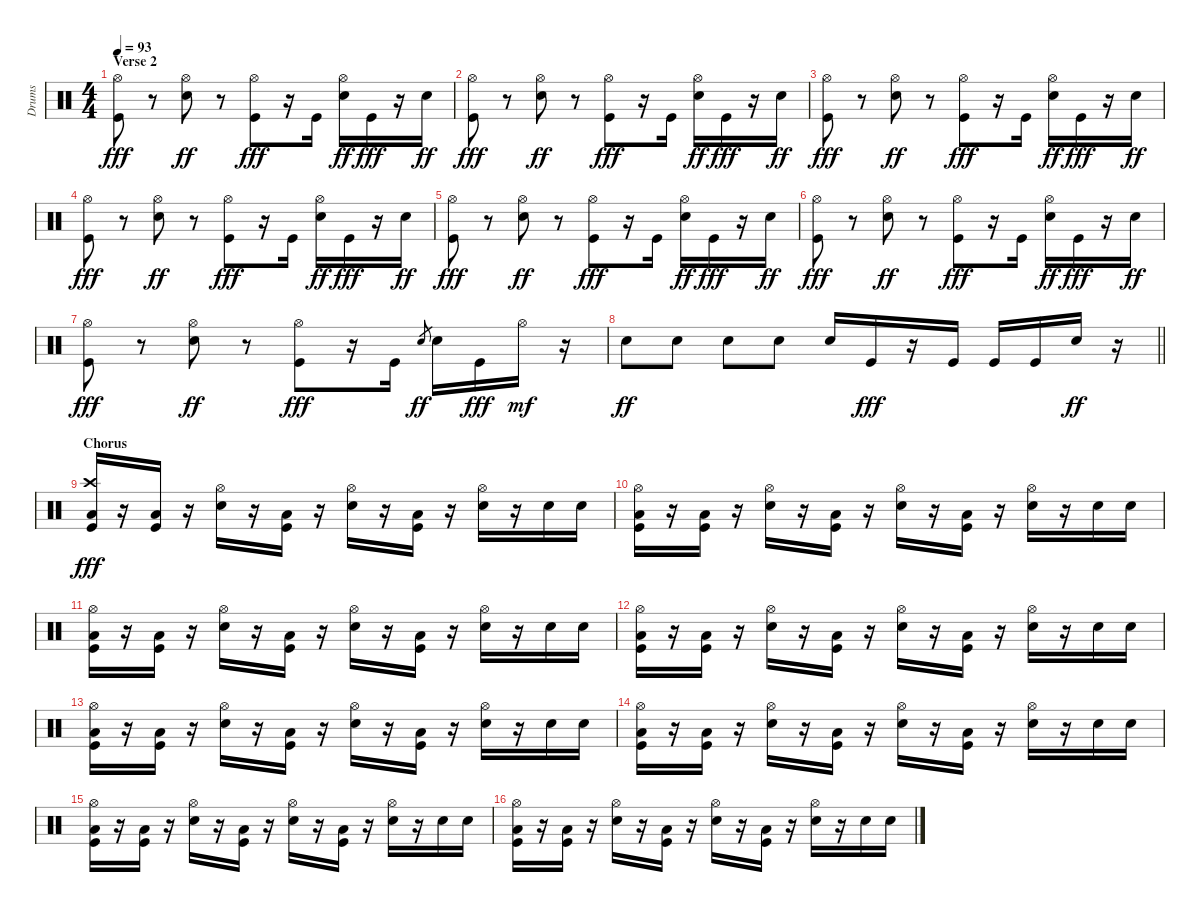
\track ("Drums" "Drums") {instrument percussion}
\staff {score}
\articulation defaults
\ts (4 4)
\section ("" "Verse 2")
\tempo 93
\clef neutral
\ks c
("Hi-Hat (open)" "Kick (hit)").8{dy fff} r.8 ("Hi-Hat (open)" "Electric Snare (hit)").8{dy ff} r.8 ("Hi-Hat (open)" "Kick (hit)").8{dy fff} r.16 "Kick (hit)".16 ("Hi-Hat (open)" "Electric Snare (hit)").16{dy ff} "Kick (hit)".16{dy fff} r.16 "Electric Snare (hit)".16{dy ff} |
("Hi-Hat (open)" "Kick (hit)").8{dy fff} r.8 ("Hi-Hat (open)" "Electric Snare (hit)").8{dy ff} r.8 ("Hi-Hat (open)" "Kick (hit)").8{dy fff} r.16 "Kick (hit)".16 ("Hi-Hat (open)" "Electric Snare (hit)").16{dy ff} "Kick (hit)".16{dy fff} r.16 "Electric Snare (hit)".16{dy ff} |
("Hi-Hat (open)" "Kick (hit)").8{dy fff} r.8 ("Hi-Hat (open)" "Electric Snare (hit)").8{dy ff} r.8 ("Hi-Hat (open)" "Kick (hit)").8{dy fff} r.16 "Kick (hit)".16 ("Hi-Hat (open)" "Electric Snare (hit)").16{dy ff} "Kick (hit)".16{dy fff} r.16 "Electric Snare (hit)".16{dy ff} |
("Hi-Hat (open)" "Kick (hit)").8{dy fff} r.8 ("Hi-Hat (open)" "Electric Snare (hit)").8{dy ff} r.8 ("Hi-Hat (open)" "Kick (hit)").8{dy fff} r.16 "Kick (hit)".16 ("Hi-Hat (open)" "Electric Snare (hit)").16{dy ff} "Kick (hit)".16{dy fff} r.16 "Electric Snare (hit)".16{dy ff} |
("Hi-Hat (open)" "Kick (hit)").8{dy fff} r.8 ("Hi-Hat (open)" "Electric Snare (hit)").8{dy ff} r.8 ("Hi-Hat (open)" "Kick (hit)").8{dy fff} r.16 "Kick (hit)".16 ("Hi-Hat (open)" "Electric Snare (hit)").16{dy ff} "Kick (hit)".16{dy fff} r.16 "Electric Snare (hit)".16{dy ff} |
("Hi-Hat (open)" "Kick (hit)").8{dy fff} r.8 ("Hi-Hat (open)" "Electric Snare (hit)").8{dy ff} r.8 ("Hi-Hat (open)" "Kick (hit)").8{dy fff} r.16 "Kick (hit)".16 ("Hi-Hat (open)" "Electric Snare (hit)").16{dy ff} "Kick (hit)".16{dy fff} r.16 "Electric Snare (hit)".16{dy ff} |
("Hi-Hat (open)" "Kick (hit)").8{dy fff} r.8 ("Hi-Hat (open)" "Electric Snare (hit)").8{dy ff} r.8 ("Hi-Hat (open)" "Kick (hit)").8{dy fff} r.16 "Kick (hit)".16 "Electric Snare (hit)".8{gr dy ff} "Electric Snare (hit)".16 "Kick (hit)".16{dy fff} "Hi-Hat (open)".16{dy mf} r.16 |
\barLineRight lightlight "Electric Snare (hit)".8{dy ff} "Electric Snare (hit)".8 "Electric Snare (hit)".8 "Electric Snare (hit)".8 "Electric Snare (hit)".16 "Kick (hit)".16{dy fff}
r.16 "Kick (hit)".16 "Kick (hit)".16 "Kick (hit)".16 "Electric Snare (hit)".16{dy ff} r.16 |
\section ("" "Chorus")
("Crash high (hit)" "Low Floor Tom (hit)" "Kick (hit)").16{dy fff} r.16 ("Low Floor Tom (hit)" "Kick (hit)").16 r.16 ("Hi-Hat (open)" "Electric Snare (hit)").16 r.16 ("Low Floor Tom (hit)" "Kick (hit)").16 r.16 ("Hi-Hat (open)" "Electric Snare (hit)").16 r.16 ("Low Floor Tom (hit)" "Kick (hit)").16 r.16 ("Hi-Hat (open)" "Electric Snare (hit)").16 r.16 "Electric Snare (hit)".16 "Electric Snare (hit)".16 |
("Hi-Hat (open)" "Low Floor Tom (hit)" "Kick (hit)").16 r.16 ("Low Floor Tom (hit)" "Kick (hit)").16 r.16 ("Hi-Hat (open)" "Electric Snare (hit)").16 r.16 ("Low Floor Tom (hit)" "Kick (hit)").16 r.16 ("Hi-Hat (open)" "Electric Snare (hit)").16 r.16 ("Low Floor Tom (hit)" "Kick (hit)").16 r.16 ("Hi-Hat (open)" "Electric Snare (hit)").16 r.16 "Electric Snare (hit)".16 "Electric Snare (hit)".16 |
("Hi-Hat (open)" "Low Floor Tom (hit)" "Kick (hit)").16 r.16 ("Low Floor Tom (hit)" "Kick (hit)").16 r.16 ("Hi-Hat (open)" "Electric Snare (hit)").16 r.16 ("Low Floor Tom (hit)" "Kick (hit)").16 r.16 ("Hi-Hat (open)" "Electric Snare (hit)").16 r.16 ("Low Floor Tom (hit)" "Kick (hit)").16 r.16 ("Hi-Hat (open)" "Electric Snare (hit)").16 r.16 "Electric Snare (hit)".16 "Electric Snare (hit)".16 |
("Hi-Hat (open)" "Low Floor Tom (hit)" "Kick (hit)").16 r.16 ("Low Floor Tom (hit)" "Kick (hit)").16 r.16 ("Hi-Hat (open)" "Electric Snare (hit)").16 r.16 ("Low Floor Tom (hit)" "Kick (hit)").16 r.16 ("Hi-Hat (open)" "Electric Snare (hit)").16 r.16 ("Low Floor Tom (hit)" "Kick (hit)").16 r.16 ("Hi-Hat (open)" "Electric Snare (hit)").16 r.16 "Electric Snare (hit)".16 "Electric Snare (hit)".16 |
("Hi-Hat (open)" "Low Floor Tom (hit)" "Kick (hit)").16 r.16 ("Low Floor Tom (hit)" "Kick (hit)").16 r.16 ("Hi-Hat (open)" "Electric Snare (hit)").16 r.16 ("Low Floor Tom (hit)" "Kick (hit)").16 r.16 ("Hi-Hat (open)" "Electric Snare (hit)").16 r.16 ("Low Floor Tom (hit)" "Kick (hit)").16 r.16 ("Hi-Hat (open)" "Electric Snare (hit)").16 r.16 "Electric Snare (hit)".16 "Electric Snare (hit)".16 |
("Hi-Hat (open)" "Low Floor Tom (hit)" "Kick (hit)").16 r.16 ("Low Floor Tom (hit)" "Kick (hit)").16 r.16 ("Hi-Hat (open)" "Electric Snare (hit)").16 r.16 ("Low Floor Tom (hit)" "Kick (hit)").16 r.16 ("Hi-Hat (open)" "Electric Snare (hit)").16 r.16 ("Low Floor Tom (hit)" "Kick (hit)").16 r.16 ("Hi-Hat (open)" "Electric Snare (hit)").16 r.16 "Electric Snare (hit)".16 "Electric Snare (hit)".16 |
("Hi-Hat (open)" "Low Floor Tom (hit)" "Kick (hit)").16 r.16 ("Low Floor Tom (hit)" "Kick (hit)").16 r.16 ("Hi-Hat (open)" "Electric Snare (hit)").16 r.16 ("Low Floor Tom (hit)" "Kick (hit)").16 r.16 ("Hi-Hat (open)" "Electric Snare (hit)").16 r.16 ("Low Floor Tom (hit)" "Kick (hit)").16 r.16 ("Hi-Hat (open)" "Electric Snare (hit)").16 r.16 "Electric Snare (hit)".16 "Electric Snare (hit)".16 |
("Hi-Hat (open)" "Low Floor Tom (hit)" "Kick (hit)").16 r.16 ("Low Floor Tom (hit)" "Kick (hit)").16 r.16 ("Hi-Hat (open)" "Electric Snare (hit)").16 r.16 ("Low Floor Tom (hit)" "Kick (hit)").16 r.16 ("Hi-Hat (open)" "Electric Snare (hit)").16 r.16 ("Low Floor Tom (hit)" "Kick (hit)").16 r.16 ("Hi-Hat (open)" "Electric Snare (hit)").16 r.16 "Electric Snare (hit)".16 "Electric Snare (hit)".16
